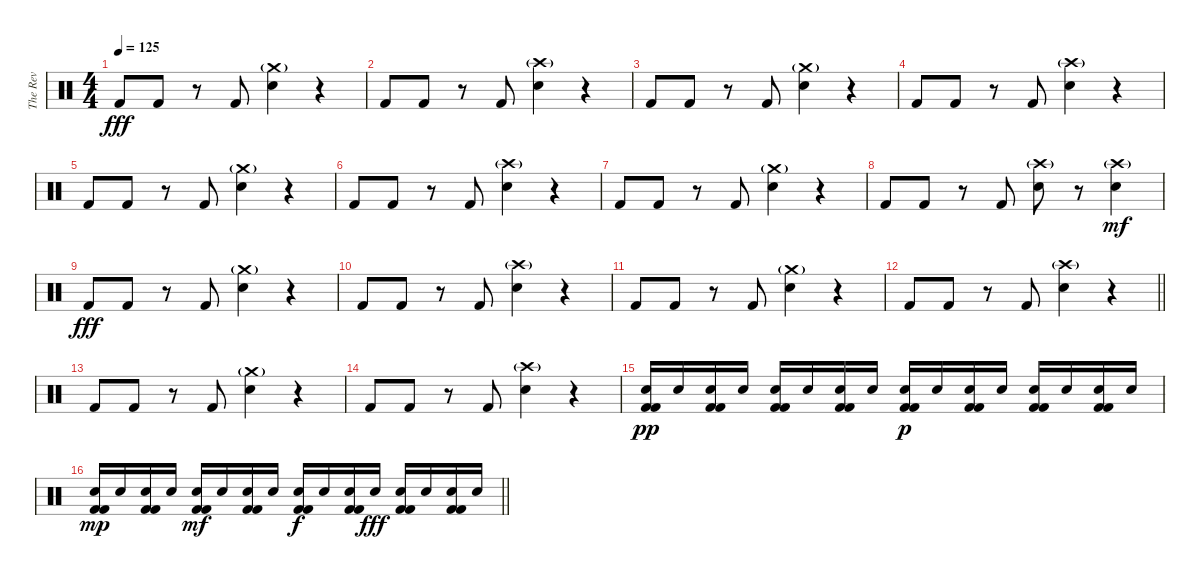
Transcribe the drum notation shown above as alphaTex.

\track ("The Rev" "The Rev") {instrument percussion}
\staff {score}
\articulation defaults
\ts (4 4)
\tempo 125
\clef neutral
\ks c "Kick (hit) 2".8{dy fff} "Kick (hit) 2".8
r.8 "Kick (hit) 2".8 ("Crash medium (hit)"{g} "Electric Snare (hit)").4 r.4 |
"Kick (hit) 2".8 "Kick (hit) 2".8 r.8 "Kick (hit) 2".8 ("Crash high (hit)"{g} "Electric Snare (hit)").4 r.4 |
"Kick (hit) 2".8 "Kick (hit) 2".8 r.8 "Kick (hit) 2".8 ("Crash medium (hit)"{g} "Electric Snare (hit)").4 r.4 |
"Kick (hit) 2".8 "Kick (hit) 2".8 r.8 "Kick (hit) 2".8 ("Crash high (hit)"{g} "Electric Snare (hit)").4 r.4 |
"Kick (hit) 2".8 "Kick (hit) 2".8 r.8 "Kick (hit) 2".8 ("Crash medium (hit)"{g} "Electric Snare (hit)").4 r.4 |
"Kick (hit) 2".8 "Kick (hit) 2".8 r.8 "Kick (hit) 2".8 ("Crash high (hit)"{g} "Electric Snare (hit)").4 r.4 |
"Kick (hit) 2".8 "Kick (hit) 2".8 r.8 "Kick (hit) 2".8 ("Crash medium (hit)"{g} "Electric Snare (hit)").4 r.4 |
"Kick (hit) 2".8 "Kick (hit) 2".8 r.8 "Kick (hit) 2".8 ("Crash high (hit)"{g} "Electric Snare (hit)").8 r.8 ("Crash high (hit)"{g} "Electric Snare (hit)").4{dy mf} |
"Kick (hit) 2".8{dy fff} "Kick (hit) 2".8 r.8 "Kick (hit) 2".8 ("Crash medium (hit)"{g} "Electric Snare (hit)").4 r.4 |
"Kick (hit) 2".8 "Kick (hit) 2".8 r.8 "Kick (hit) 2".8 ("Crash high (hit)"{g} "Electric Snare (hit)").4 r.4 |
"Kick (hit) 2".8 "Kick (hit) 2".8 r.8 "Kick (hit) 2".8 ("Crash medium (hit)"{g} "Electric Snare (hit)").4 r.4 |
\barLineRight lightlight "Kick (hit) 2".8 "Kick (hit) 2".8
r.8 "Kick (hit) 2".8 ("Crash high (hit)"{g} "Electric Snare (hit)").4 r.4 |
"Kick (hit) 2".8 "Kick (hit) 2".8 r.8 "Kick (hit) 2".8 ("Crash medium (hit)"{g} "Electric Snare (hit)").4 r.4 |
"Kick (hit) 2".8 "Kick (hit) 2".8 r.8 "Kick (hit) 2".8 ("Crash high (hit)"{g} "Electric Snare (hit)").4 r.4 |
("Electric Snare (hit)" "Kick (hit) 2" "Kick (hit) 2").16{dy pp} "Electric Snare (hit)".16 ("Electric Snare (hit)" "Kick (hit) 2" "Kick (hit) 2").16 "Electric Snare (hit)".16 ("Electric Snare (hit)" "Kick (hit) 2" "Kick (hit) 2").16 "Electric Snare (hit)".16 ("Electric Snare (hit)" "Kick (hit) 2" "Kick (hit) 2").16 "Electric Snare (hit)".16 ("Electric Snare (hit)" "Kick (hit) 2" "Kick (hit) 2").16{dy p} "Electric Snare (hit)".16 ("Electric Snare (hit)" "Kick (hit) 2" "Kick (hit) 2").16 "Electric Snare (hit)".16 ("Electric Snare (hit)" "Kick (hit) 2" "Kick (hit) 2").16 "Electric Snare (hit)".16 ("Electric Snare (hit)" "Kick (hit) 2" "Kick (hit) 2").16 "Electric Snare (hit)".16 |
\barLineRight lightlight
("Electric Snare (hit)" "Kick (hit) 2" "Kick (hit) 2").16{dy mp} "Electric Snare (hit)".16 ("Electric Snare (hit)" "Kick (hit) 2" "Kick (hit) 2").16 "Electric Snare (hit)".16 ("Electric Snare (hit)" "Kick (hit) 2" "Kick (hit) 2").16{dy mf} "Electric Snare (hit)".16 ("Electric Snare (hit)" "Kick (hit) 2" "Kick (hit) 2").16 "Electric Snare (hit)".16 ("Electric Snare (hit)" "Kick (hit) 2" "Kick (hit) 2").16{dy f} "Electric Snare (hit)".16 ("Electric Snare (hit)" "Kick (hit) 2" "Kick (hit) 2").16 "Electric Snare (hit)".16{dy fff} ("Electric Snare (hit)" "Kick (hit) 2" "Kick (hit) 2").16 "Electric Snare (hit)".16 ("Electric Snare (hit)" "Kick (hit) 2" "Kick (hit) 2").16 "Electric Snare (hit)".16
